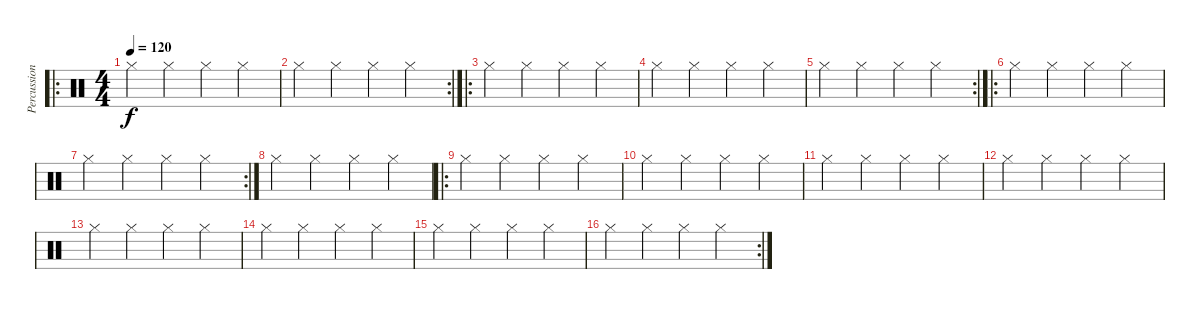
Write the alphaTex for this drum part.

\track ("Percussioni" "Percussion") {instrument percussion}
\staff {score}
\articulation defaults
\ro
\ts (4 4)
\tempo 120
\clef neutral
\ks c "Hi-Hat (closed)".4{dy f} "Hi-Hat (closed)".4 "Hi-Hat (closed)".4 "Hi-Hat (closed)".4
|
\rc 2 "Hi-Hat (closed)".4 "Hi-Hat (closed)".4 "Hi-Hat (closed)".4 "Hi-Hat (closed)".4
|
\ro "Hi-Hat (closed)".4 "Hi-Hat (closed)".4 "Hi-Hat (closed)".4 "Hi-Hat (closed)".4
|
"Hi-Hat (closed)".4 "Hi-Hat (closed)".4 "Hi-Hat (closed)".4 "Hi-Hat (closed)".4 |
\rc 2 "Hi-Hat (closed)".4 "Hi-Hat (closed)".4 "Hi-Hat (closed)".4 "Hi-Hat (closed)".4
|
\ro "Hi-Hat (closed)".4 "Hi-Hat (closed)".4 "Hi-Hat (closed)".4 "Hi-Hat (closed)".4
|
\rc 2 "Hi-Hat (closed)".4 "Hi-Hat (closed)".4 "Hi-Hat (closed)".4 "Hi-Hat (closed)".4
|
"Hi-Hat (closed)".4 "Hi-Hat (closed)".4 "Hi-Hat (closed)".4 "Hi-Hat (closed)".4 |
\ro "Hi-Hat (closed)".4 "Hi-Hat (closed)".4 "Hi-Hat (closed)".4 "Hi-Hat (closed)".4
|
"Hi-Hat (closed)".4 "Hi-Hat (closed)".4 "Hi-Hat (closed)".4 "Hi-Hat (closed)".4 |
"Hi-Hat (closed)".4 "Hi-Hat (closed)".4 "Hi-Hat (closed)".4 "Hi-Hat (closed)".4 |
"Hi-Hat (closed)".4 "Hi-Hat (closed)".4 "Hi-Hat (closed)".4 "Hi-Hat (closed)".4 |
"Hi-Hat (closed)".4 "Hi-Hat (closed)".4 "Hi-Hat (closed)".4 "Hi-Hat (closed)".4 |
"Hi-Hat (closed)".4 "Hi-Hat (closed)".4 "Hi-Hat (closed)".4 "Hi-Hat (closed)".4 |
"Hi-Hat (closed)".4 "Hi-Hat (closed)".4 "Hi-Hat (closed)".4 "Hi-Hat (closed)".4 |
\rc 2 "Hi-Hat (closed)".4 "Hi-Hat (closed)".4 "Hi-Hat (closed)".4 "Hi-Hat (closed)".4
